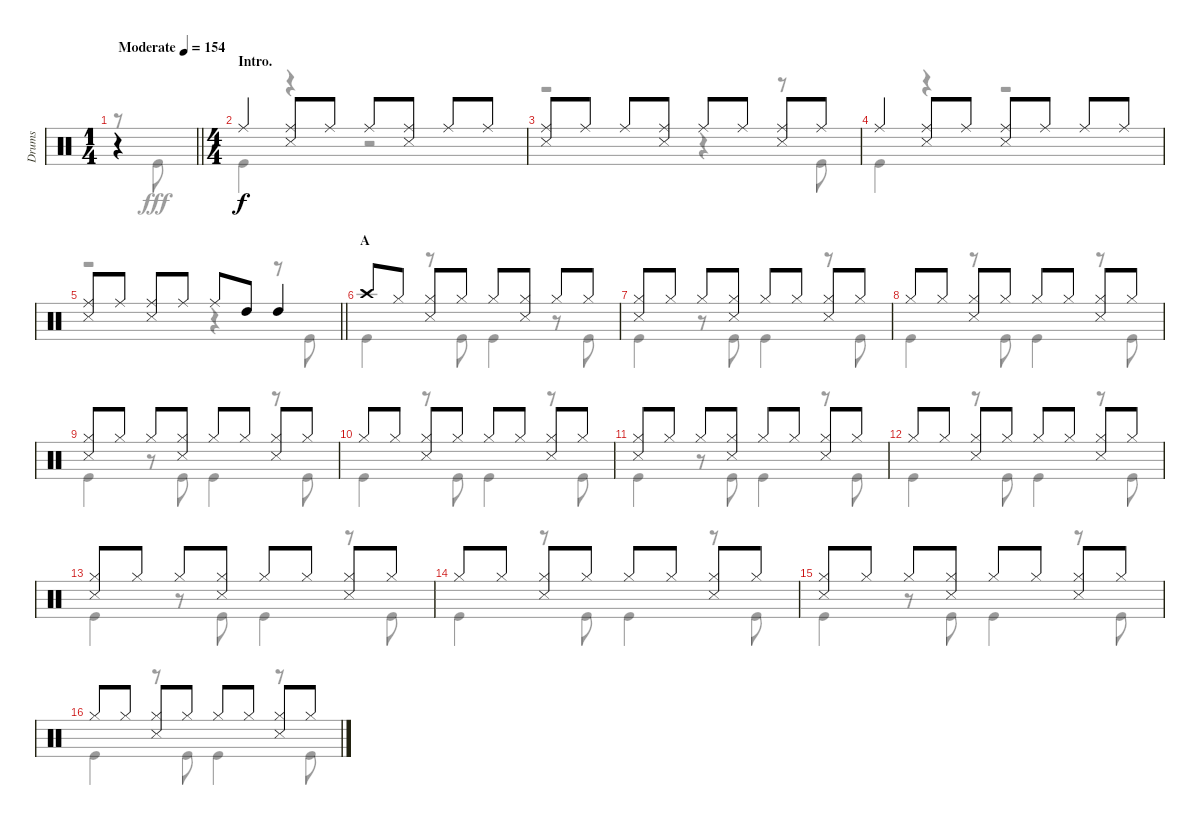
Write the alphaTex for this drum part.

\track ("Drums" "Drums") {instrument percussion}
\staff {score}
\articulation defaults
\voice
\ts (1 4)
\tempo (154 "Moderate")
\clef neutral
\barLineRight lightlight
\ks c
r.4{dy f} |
\ts (4 4)
\section ("" "Intro.")
"Ride (middle)".4 ("Ride (middle)" "Snare (side stick) 3").8 "Ride (middle)".8 "Ride (middle)".8 ("Ride (middle)" "Snare (side stick) 3").8 "Ride (middle)".8 "Ride (middle)".8 |
("Ride (middle)" "Snare (side stick) 3").8 "Ride (middle)".8 "Ride (middle)".8 ("Ride (middle)" "Snare (side stick) 3").8 "Ride (middle)".8 "Ride (middle)".8 ("Ride (middle)" "Snare (side stick) 3").8 "Ride (middle)".8 |
"Ride (middle)".4 ("Ride (middle)" "Snare (side stick) 3").8 "Ride (middle)".8 ("Ride (middle)" "Snare (side stick) 3").8 "Ride (middle)".8 "Ride (middle)".8 "Ride (middle)".8 |
\barLineRight lightlight
("Ride (middle)" "Snare (side stick) 3").8 "Ride (middle)".8 ("Ride (middle)" "Snare (side stick) 3").8 "Ride (middle)".8 "Ride (middle)".8 "High Tom (hit)".8 "High Tom (hit)".4 |
\section ("" "A")
"Crash high (hit)".8 "Hi-Hat (closed)".8 ("Hi-Hat (closed)" "Snare (side stick) 3").8 "Hi-Hat (closed)".8 "Hi-Hat (closed)".8 ("Hi-Hat (closed)" "Snare (side stick) 3").8 "Hi-Hat (closed)".8 "Hi-Hat (closed)".8 |
("Hi-Hat (closed)" "Snare (side stick) 3").8 "Hi-Hat (closed)".8 "Hi-Hat (closed)".8 ("Hi-Hat (closed)" "Snare (side stick) 3").8 "Hi-Hat (closed)".8 "Hi-Hat (closed)".8 ("Hi-Hat (closed)" "Snare (side stick) 3").8 "Hi-Hat (closed)".8 |
"Hi-Hat (closed)".8 "Hi-Hat (closed)".8 ("Hi-Hat (closed)" "Snare (side stick) 3").8 "Hi-Hat (closed)".8 "Hi-Hat (closed)".8 "Hi-Hat (closed)".8 ("Hi-Hat (closed)" "Snare (side stick) 3").8 "Hi-Hat (closed)".8 |
("Hi-Hat (closed)" "Snare (side stick) 3").8 "Hi-Hat (closed)".8 "Hi-Hat (closed)".8 ("Hi-Hat (closed)" "Snare (side stick) 3").8 "Hi-Hat (closed)".8 "Hi-Hat (closed)".8 ("Hi-Hat (closed)" "Snare (side stick) 3").8 "Hi-Hat (closed)".8 |
"Hi-Hat (closed)".8 "Hi-Hat (closed)".8 ("Hi-Hat (closed)" "Snare (side stick) 3").8 "Hi-Hat (closed)".8 "Hi-Hat (closed)".8 "Hi-Hat (closed)".8 ("Hi-Hat (closed)" "Snare (side stick) 3").8 "Hi-Hat (closed)".8 |
("Hi-Hat (closed)" "Snare (side stick) 3").8 "Hi-Hat (closed)".8 "Hi-Hat (closed)".8 ("Hi-Hat (closed)" "Snare (side stick) 3").8 "Hi-Hat (closed)".8 "Hi-Hat (closed)".8 ("Hi-Hat (closed)" "Snare (side stick) 3").8 "Hi-Hat (closed)".8 |
"Hi-Hat (closed)".8 "Hi-Hat (closed)".8 ("Hi-Hat (closed)" "Snare (side stick) 3").8 "Hi-Hat (closed)".8 "Hi-Hat (closed)".8 "Hi-Hat (closed)".8 ("Hi-Hat (closed)" "Snare (side stick) 3").8 "Hi-Hat (closed)".8 |
("Hi-Hat (closed)" "Snare (side stick) 3").8 "Hi-Hat (closed)".8 "Hi-Hat (closed)".8 ("Hi-Hat (closed)" "Snare (side stick) 3").8 "Hi-Hat (closed)".8 "Hi-Hat (closed)".8 ("Hi-Hat (closed)" "Snare (side stick) 3").8 "Hi-Hat (closed)".8 |
"Hi-Hat (closed)".8 "Hi-Hat (closed)".8 ("Hi-Hat (closed)" "Snare (side stick) 3").8 "Hi-Hat (closed)".8 "Hi-Hat (closed)".8 "Hi-Hat (closed)".8 ("Hi-Hat (closed)" "Snare (side stick) 3").8 "Hi-Hat (closed)".8 |
("Hi-Hat (closed)" "Snare (side stick) 3").8 "Hi-Hat (closed)".8 "Hi-Hat (closed)".8 ("Hi-Hat (closed)" "Snare (side stick) 3").8 "Hi-Hat (closed)".8 "Hi-Hat (closed)".8 ("Hi-Hat (closed)" "Snare (side stick) 3").8 "Hi-Hat (closed)".8 |
"Hi-Hat (closed)".8 "Hi-Hat (closed)".8 ("Hi-Hat (closed)" "Snare (side stick) 3").8 "Hi-Hat (closed)".8 "Hi-Hat (closed)".8 "Hi-Hat (closed)".8 ("Hi-Hat (closed)" "Snare (side stick) 3").8 "Hi-Hat (closed)".8
\voice
\clef neutral
\ottava regular
\simile none
\barLineRight lightlight
\ks c
r.8{dy fff} "Kick (hit)".8 |
"Kick (hit)".4 r.4 r.2 |
r.2 r.4 r.8 "Kick (hit)".8 |
"Kick (hit)".4 r.4 r.2 |
\barLineRight lightlight
r.2 r.4 r.8 "Kick (hit)".8 |
"Kick (hit)".4 r.8 "Kick (hit)".8 "Kick (hit)".4 r.8 "Kick (hit)".8 |
"Kick (hit)".4 r.8 "Kick (hit)".8 "Kick (hit)".4 r.8 "Kick (hit)".8 |
"Kick (hit)".4 r.8 "Kick (hit)".8 "Kick (hit)".4 r.8 "Kick (hit)".8 |
"Kick (hit)".4 r.8 "Kick (hit)".8 "Kick (hit)".4 r.8 "Kick (hit)".8 |
"Kick (hit)".4 r.8 "Kick (hit)".8 "Kick (hit)".4 r.8 "Kick (hit)".8 |
"Kick (hit)".4 r.8 "Kick (hit)".8 "Kick (hit)".4 r.8 "Kick (hit)".8 |
"Kick (hit)".4 r.8 "Kick (hit)".8 "Kick (hit)".4 r.8 "Kick (hit)".8 |
"Kick (hit)".4 r.8 "Kick (hit)".8 "Kick (hit)".4 r.8 "Kick (hit)".8 |
"Kick (hit)".4 r.8 "Kick (hit)".8 "Kick (hit)".4 r.8 "Kick (hit)".8 |
"Kick (hit)".4 r.8 "Kick (hit)".8 "Kick (hit)".4 r.8 "Kick (hit)".8 |
"Kick (hit)".4 r.8 "Kick (hit)".8 "Kick (hit)".4 r.8 "Kick (hit)".8
